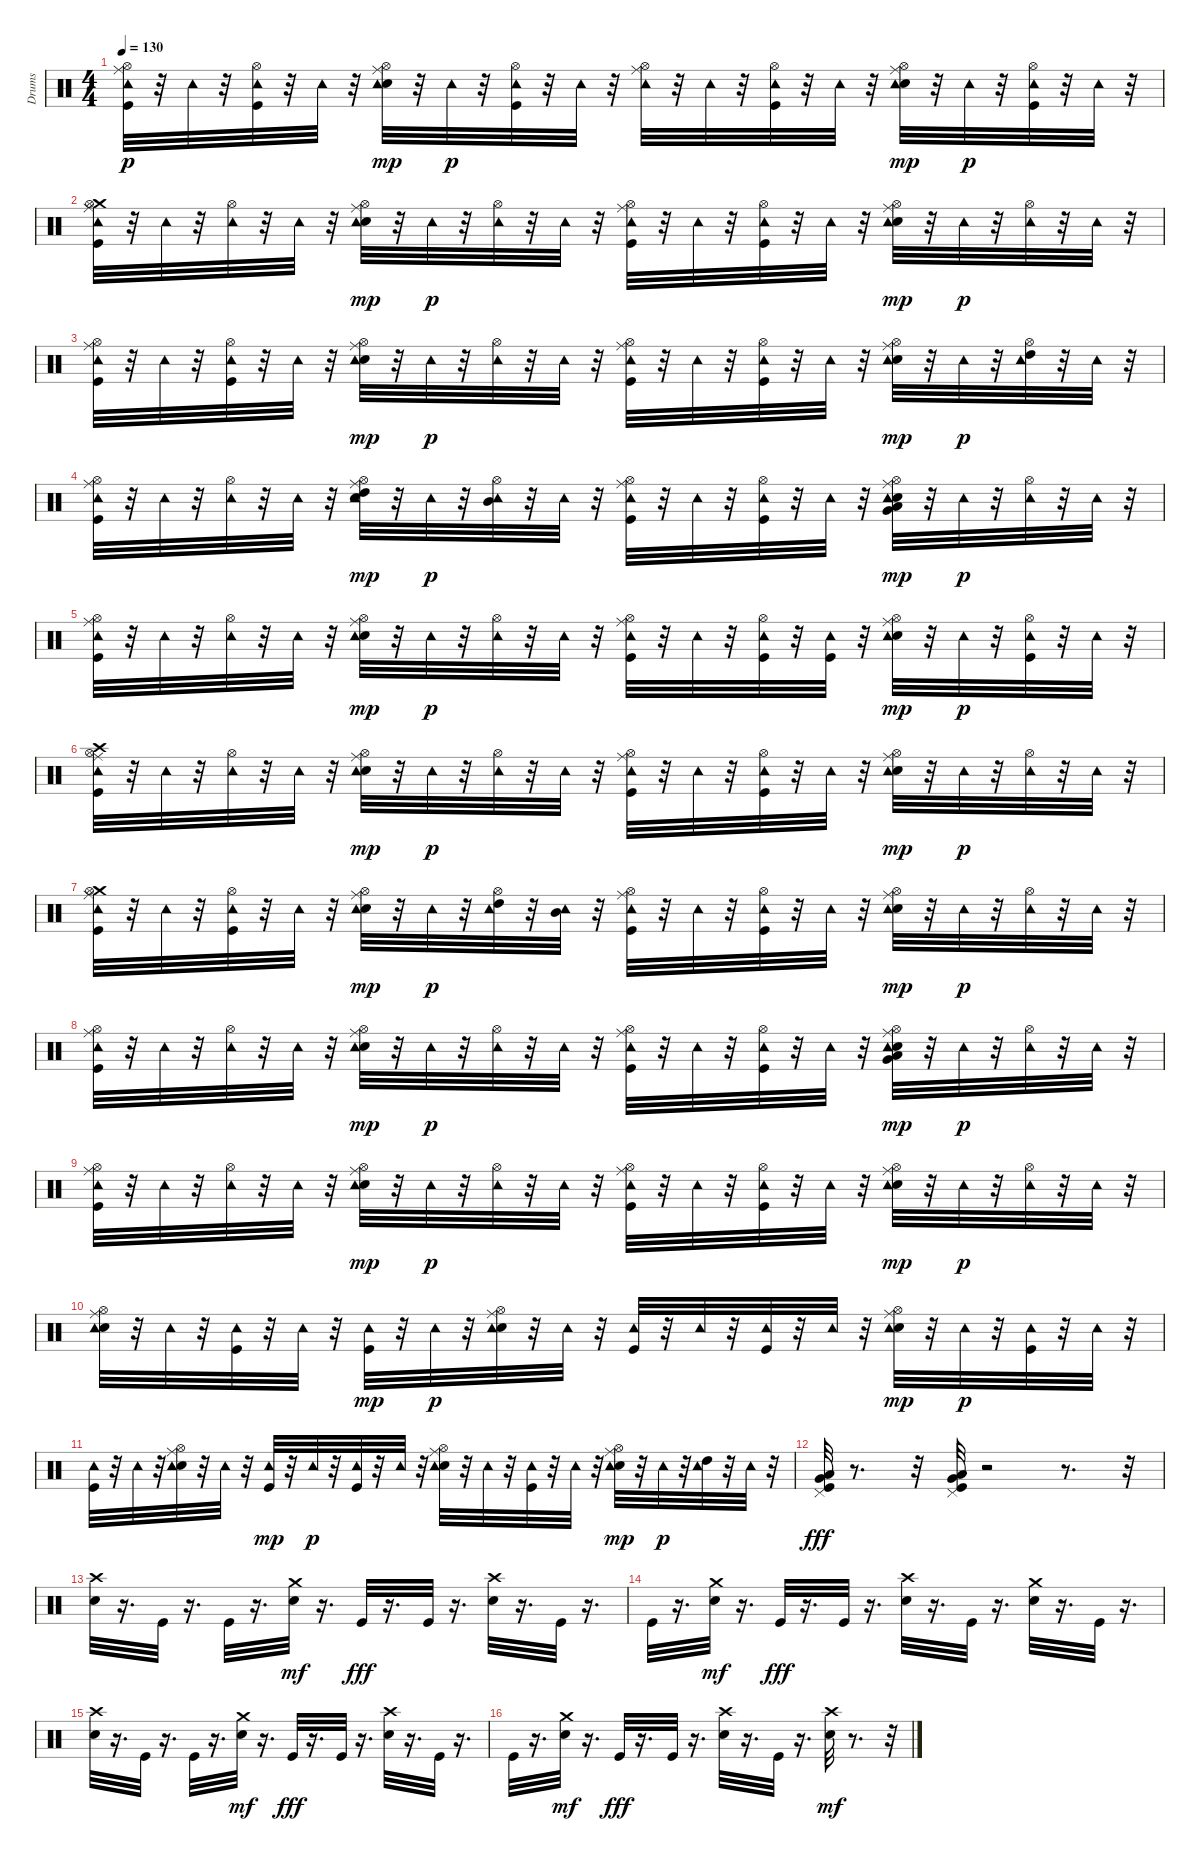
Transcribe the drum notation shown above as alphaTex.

\track ("Drums" "Drums") {instrument percussion}
\staff {score}
\articulation defaults
\ts (4 4)
\tempo 130
\clef neutral
\ks c
("Ride (middle)" "Kick (hit)" "Hi-Hat (open)" "Tambourine (hit)").32{dy p} r.32 "Tambourine (hit)".32 r.32 ("Hi-Hat (open)" "Kick (hit)" "Tambourine (hit)").32 r.32 "Tambourine (hit)".32 r.32 ("Ride (middle)" "Electric Snare (hit)" "Hi-Hat (open)" "Tambourine (hit)").32{dy mp} r.32 "Tambourine (hit)".32{dy p} r.32 ("Kick (hit)" "Hi-Hat (open)" "Tambourine (hit)").32 r.32 "Tambourine (hit)".32 r.32 ("Ride (middle)" "Hi-Hat (open)" "Tambourine (hit)").32 r.32 "Tambourine (hit)".32 r.32 ("Hi-Hat (open)" "Kick (hit)" "Tambourine (hit)").32 r.32 "Tambourine (hit)".32 r.32 ("Ride (middle)" "Electric Snare (hit)" "Hi-Hat (open)" "Tambourine (hit)").32{dy mp} r.32 "Tambourine (hit)".32{dy p} r.32 ("Hi-Hat (open)" "Kick (hit)" "Tambourine (hit)").32 r.32 "Tambourine (hit)".32 r.32 |
("Ride (middle)" "Crash medium (hit)" "Kick (hit)" "Hi-Hat (open)" "Tambourine (hit)").32 r.32 "Tambourine (hit)".32 r.32 ("Hi-Hat (open)" "Tambourine (hit)").32 r.32 "Tambourine (hit)".32 r.32 ("Ride (middle)" "Electric Snare (hit)" "Hi-Hat (open)" "Tambourine (hit)").32{dy mp} r.32 "Tambourine (hit)".32{dy p} r.32 ("Hi-Hat (open)" "Tambourine (hit)").32 r.32 "Tambourine (hit)".32 r.32 ("Ride (middle)" "Kick (hit)" "Hi-Hat (open)" "Tambourine (hit)").32 r.32 "Tambourine (hit)".32 r.32 ("Kick (hit)" "Hi-Hat (open)" "Tambourine (hit)").32 r.32 "Tambourine (hit)".32 r.32 ("Ride (middle)" "Electric Snare (hit)" "Hi-Hat (open)" "Tambourine (hit)").32{dy mp} r.32 "Tambourine (hit)".32{dy p} r.32 ("Hi-Hat (open)" "Tambourine (hit)").32 r.32 "Tambourine (hit)".32 r.32 |
("Ride (middle)" "Kick (hit)" "Hi-Hat (open)" "Tambourine (hit)").32 r.32 "Tambourine (hit)".32 r.32 ("Hi-Hat (open)" "Kick (hit)" "Tambourine (hit)").32 r.32 "Tambourine (hit)".32 r.32 ("Ride (middle)" "Electric Snare (hit)" "Hi-Hat (open)" "Tambourine (hit)").32{dy mp} r.32 "Tambourine (hit)".32{dy p} r.32 ("Hi-Hat (open)" "Tambourine (hit)").32 r.32 "Tambourine (hit)".32 r.32 ("Ride (middle)" "Kick (hit)" "Hi-Hat (open)" "Tambourine (hit)").32 r.32 "Tambourine (hit)".32 r.32 ("Hi-Hat (open)" "Kick (hit)" "Tambourine (hit)").32 r.32 "Tambourine (hit)".32 r.32 ("Ride (middle)" "Electric Snare (hit)" "Hi-Hat (open)" "Tambourine (hit)").32{dy mp} r.32 "Tambourine (hit)".32{dy p} r.32 ("High Tom (hit)" "Hi-Hat (open)" "Tambourine (hit)").32 r.32 "Tambourine (hit)".32 r.32 |
("Ride (middle)" "Kick (hit)" "Hi-Hat (open)" "Tambourine (hit)").32 r.32 "Tambourine (hit)".32 r.32 ("Hi-Hat (open)" "Tambourine (hit)").32 r.32 "Tambourine (hit)".32 r.32 ("High Tom (hit)" "Ride (middle)" "Electric Snare (hit)" "Hi-Hat (open)" "Tambourine (hit)").32{dy mp} r.32 "Tambourine (hit)".32{dy p} r.32 ("Mid Tom (hit)" "Hi-Hat (open)" "Tambourine (hit)").32 r.32 "Tambourine (hit)".32 r.32 ("Ride (middle)" "Kick (hit)" "Hi-Hat (open)" "Tambourine (hit)").32 r.32 "Tambourine (hit)".32 r.32 ("Kick (hit)" "Hi-Hat (open)" "Tambourine (hit)").32 r.32 "Tambourine (hit)".32 r.32 ("Very Low Tom (hit)" "Low Tom (hit)" "Ride (middle)" "Electric Snare (hit)" "Hi-Hat (open)" "Tambourine (hit)").32{dy mp} r.32 "Tambourine (hit)".32{dy p} r.32 ("Hi-Hat (open)" "Tambourine (hit)").32 r.32 "Tambourine (hit)".32 r.32 |
("Ride (middle)" "Kick (hit)" "Hi-Hat (open)" "Tambourine (hit)").32 r.32 "Tambourine (hit)".32 r.32 ("Hi-Hat (open)" "Tambourine (hit)").32 r.32 "Tambourine (hit)".32 r.32 ("Ride (middle)" "Electric Snare (hit)" "Hi-Hat (open)" "Tambourine (hit)").32{dy mp} r.32 "Tambourine (hit)".32{dy p} r.32 ("Hi-Hat (open)" "Tambourine (hit)").32 r.32 "Tambourine (hit)".32 r.32 ("Kick (hit)" "Ride (middle)" "Hi-Hat (open)" "Tambourine (hit)").32 r.32 "Tambourine (hit)".32 r.32 ("Hi-Hat (open)" "Kick (hit)" "Tambourine (hit)").32 r.32 ("Kick (hit)" "Tambourine (hit)").32 r.32 ("Ride (middle)" "Electric Snare (hit)" "Hi-Hat (open)" "Tambourine (hit)").32{dy mp} r.32 "Tambourine (hit)".32{dy p} r.32 ("Hi-Hat (open)" "Kick (hit)" "Tambourine (hit)").32 r.32 "Tambourine (hit)".32 r.32 |
("Crash high (hit)" "Ride (middle)" "Kick (hit)" "Hi-Hat (open)" "Tambourine (hit)").32 r.32 "Tambourine (hit)".32 r.32 ("Hi-Hat (open)" "Tambourine (hit)").32 r.32 "Tambourine (hit)".32 r.32 ("Ride (middle)" "Electric Snare (hit)" "Hi-Hat (open)" "Tambourine (hit)").32{dy mp} r.32 "Tambourine (hit)".32{dy p} r.32 ("Hi-Hat (open)" "Tambourine (hit)").32 r.32 "Tambourine (hit)".32 r.32 ("Ride (middle)" "Kick (hit)" "Hi-Hat (open)" "Tambourine (hit)").32 r.32 "Tambourine (hit)".32 r.32 ("Kick (hit)" "Hi-Hat (open)" "Tambourine (hit)").32 r.32 "Tambourine (hit)".32 r.32 ("Ride (middle)" "Electric Snare (hit)" "Hi-Hat (open)" "Tambourine (hit)").32{dy mp} r.32 "Tambourine (hit)".32{dy p} r.32 ("Hi-Hat (open)" "Tambourine (hit)").32 r.32 "Tambourine (hit)".32 r.32 |
("Crash medium (hit)" "Ride (middle)" "Kick (hit)" "Hi-Hat (open)" "Tambourine (hit)").32 r.32 "Tambourine (hit)".32 r.32 ("Hi-Hat (open)" "Kick (hit)" "Tambourine (hit)").32 r.32 "Tambourine (hit)".32 r.32 ("Ride (middle)" "Electric Snare (hit)" "Hi-Hat (open)" "Tambourine (hit)").32{dy mp} r.32 "Tambourine (hit)".32{dy p} r.32 ("High Tom (hit)" "Hi-Hat (open)" "Tambourine (hit)").32 r.32 ("Mid Tom (hit)" "Tambourine (hit)").32 r.32 ("Ride (middle)" "Kick (hit)" "Hi-Hat (open)" "Tambourine (hit)").32 r.32 "Tambourine (hit)".32 r.32 ("Hi-Hat (open)" "Kick (hit)" "Tambourine (hit)").32 r.32 "Tambourine (hit)".32 r.32 ("Ride (middle)" "Electric Snare (hit)" "Hi-Hat (open)" "Tambourine (hit)").32{dy mp} r.32 "Tambourine (hit)".32{dy p} r.32 ("Hi-Hat (open)" "Tambourine (hit)").32 r.32 "Tambourine (hit)".32 r.32 |
("Ride (middle)" "Kick (hit)" "Hi-Hat (open)" "Tambourine (hit)").32 r.32 "Tambourine (hit)".32 r.32 ("Hi-Hat (open)" "Tambourine (hit)").32 r.32 "Tambourine (hit)".32 r.32 ("Ride (middle)" "Electric Snare (hit)" "Hi-Hat (open)" "Tambourine (hit)").32{dy mp} r.32 "Tambourine (hit)".32{dy p} r.32 ("Hi-Hat (open)" "Tambourine (hit)").32 r.32 "Tambourine (hit)".32 r.32 ("Ride (middle)" "Kick (hit)" "Hi-Hat (open)" "Tambourine (hit)").32 r.32 "Tambourine (hit)".32 r.32 ("Kick (hit)" "Hi-Hat (open)" "Tambourine (hit)").32 r.32 "Tambourine (hit)".32 r.32 ("Very Low Tom (hit)" "Low Tom (hit)" "Ride (middle)" "Electric Snare (hit)" "Hi-Hat (open)" "Tambourine (hit)").32{dy mp} r.32 "Tambourine (hit)".32{dy p} r.32 ("Hi-Hat (open)" "Tambourine (hit)").32 r.32 "Tambourine (hit)".32 r.32 |
("Ride (middle)" "Kick (hit)" "Hi-Hat (open)" "Tambourine (hit)").32 r.32 "Tambourine (hit)".32 r.32 ("Hi-Hat (open)" "Tambourine (hit)").32 r.32 "Tambourine (hit)".32 r.32 ("Ride (middle)" "Electric Snare (hit)" "Hi-Hat (open)" "Tambourine (hit)").32{dy mp} r.32 "Tambourine (hit)".32{dy p} r.32 ("Hi-Hat (open)" "Tambourine (hit)").32 r.32 "Tambourine (hit)".32 r.32 ("Kick (hit)" "Ride (middle)" "Hi-Hat (open)" "Tambourine (hit)").32 r.32 "Tambourine (hit)".32 r.32 ("Hi-Hat (open)" "Kick (hit)" "Tambourine (hit)").32 r.32 "Tambourine (hit)".32 r.32 ("Ride (middle)" "Electric Snare (hit)" "Hi-Hat (open)" "Tambourine (hit)").32{dy mp} r.32 "Tambourine (hit)".32{dy p} r.32 ("Hi-Hat (open)" "Tambourine (hit)").32 r.32 "Tambourine (hit)".32 r.32 |
("Electric Snare (hit)" "Ride (middle)" "Hi-Hat (open)" "Tambourine (hit)").32 r.32 "Tambourine (hit)".32 r.32 ("Kick (hit)" "Tambourine (hit)").32 r.32 "Tambourine (hit)".32 r.32 ("Kick (hit)" "Tambourine (hit)").32{dy mp} r.32 "Tambourine (hit)".32{dy p} r.32 ("Ride (middle)" "Electric Snare (hit)" "Hi-Hat (open)" "Tambourine (hit)").32 r.32 "Tambourine (hit)".32 r.32 ("Kick (hit)" "Tambourine (hit)").32 r.32 "Tambourine (hit)".32 r.32 ("Kick (hit)" "Tambourine (hit)").32 r.32 "Tambourine (hit)".32 r.32 ("Ride (middle)" "Electric Snare (hit)" "Hi-Hat (open)" "Tambourine (hit)").32{dy mp} r.32 "Tambourine (hit)".32{dy p} r.32 ("Kick (hit)" "Tambourine (hit)").32 r.32 "Tambourine (hit)".32 r.32 |
("Kick (hit)" "Tambourine (hit)").32 r.32 "Tambourine (hit)".32 r.32 ("Ride (middle)" "Electric Snare (hit)" "Hi-Hat (open)" "Tambourine (hit)").32 r.32 "Tambourine (hit)".32 r.32 ("Kick (hit)" "Tambourine (hit)").32{dy mp} r.32 "Tambourine (hit)".32{dy p} r.32 ("Kick (hit)" "Tambourine (hit)").32 r.32 "Tambourine (hit)".32 r.32 ("Electric Snare (hit)" "Ride (middle)" "Hi-Hat (open)" "Tambourine (hit)").32 r.32 "Tambourine (hit)".32 r.32 ("Kick (hit)" "Tambourine (hit)").32 r.32 "Tambourine (hit)".32 r.32 ("Ride (middle)" "Electric Snare (hit)" "Hi-Hat (open)" "Tambourine (hit)").32{dy mp} r.32 "Tambourine (hit)".32{dy p} r.32 ("High Tom (hit)" "Tambourine (hit)").32 r.32 "Tambourine (hit)".32 r.32 |
("Pedal Hi-Hat (hit)" "Low Floor Tom (hit)" "Very Low Tom (hit)" "Kick (hit)").32{dy fff} r.8{d} r.32 ("Pedal Hi-Hat (hit)" "Low Floor Tom (hit)" "Very Low Tom (hit)" "Kick (hit)").32 r.2 r.8{d} r.32 |
("Crash high (hit)" "Electric Snare (hit)").32 r.16{d} "Kick (hit)".32 r.16{d} "Kick (hit)".32 r.16{d} ("Electric Snare (hit)" "Crash medium (hit)").32{dy mf} r.16{d} "Kick (hit)".32{dy fff} r.16{d} "Kick (hit)".32 r.16{d} ("Crash high (hit)" "Electric Snare (hit)").32 r.16{d} "Kick (hit)".32 r.16{d} |
"Kick (hit)".32 r.16{d} ("Electric Snare (hit)" "Crash medium (hit)").32{dy mf} r.16{d} "Kick (hit)".32{dy fff} r.16{d} "Kick (hit)".32 r.16{d} ("Crash high (hit)" "Electric Snare (hit)").32 r.16{d} "Kick (hit)".32 r.16{d} ("Crash medium (hit)" "Electric Snare (hit)").32 r.16{d} "Kick (hit)".32 r.16{d} |
("Crash high (hit)" "Electric Snare (hit)").32 r.16{d} "Kick (hit)".32 r.16{d} "Kick (hit)".32 r.16{d} ("Electric Snare (hit)" "Crash medium (hit)").32{dy mf} r.16{d} "Kick (hit)".32{dy fff} r.16{d} "Kick (hit)".32 r.16{d} ("Crash high (hit)" "Electric Snare (hit)").32 r.16{d} "Kick (hit)".32 r.16{d} |
"Kick (hit)".32 r.16{d} ("Electric Snare (hit)" "Crash medium (hit)").32{dy mf} r.16{d} "Kick (hit)".32{dy fff} r.16{d} "Kick (hit)".32 r.16{d} ("Crash high (hit)" "Electric Snare (hit)").32 r.16{d} "Kick (hit)".32 r.16{d} ("Electric Snare (hit)" "Crash high (hit)").32{dy mf} r.8{d} r.32
